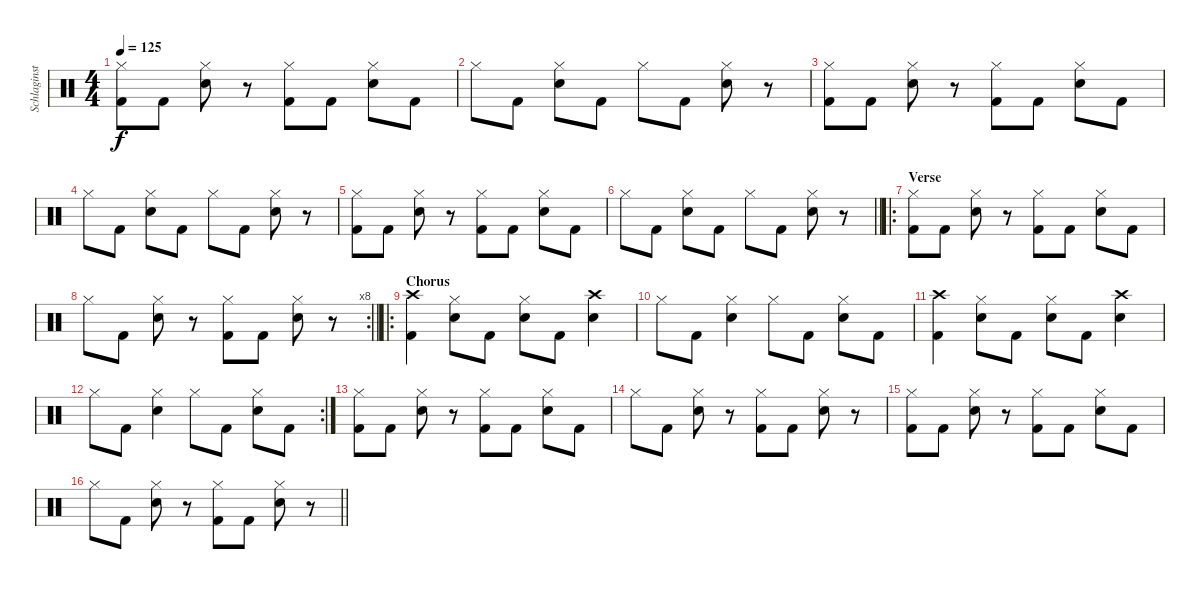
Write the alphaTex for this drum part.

\track ("Schlaginstrumente - Auswahl" "Schlaginst") {instrument percussion}
\staff {score}
\articulation defaults
\ts (4 4)
\tempo 125
\clef neutral
\ks c
("Hi-Hat (closed)" "Kick (hit) 2").8{dy f} "Kick (hit) 2".8 ("Hi-Hat (closed)" "Snare (hit) 2").8 r.8 ("Hi-Hat (closed)" "Kick (hit) 2").8 "Kick (hit) 2".8 ("Hi-Hat (closed)" "Snare (hit) 2").8 "Kick (hit) 2".8 |
"Hi-Hat (closed)".8 "Kick (hit) 2".8 ("Hi-Hat (closed)" "Snare (hit) 2").8 "Kick (hit) 2".8 "Hi-Hat (closed)".8 "Kick (hit) 2".8 ("Hi-Hat (closed)" "Snare (hit) 2").8 r.8 |
("Hi-Hat (closed)" "Kick (hit) 2").8 "Kick (hit) 2".8 ("Hi-Hat (closed)" "Snare (hit) 2").8 r.8 ("Hi-Hat (closed)" "Kick (hit) 2").8 "Kick (hit) 2".8 ("Hi-Hat (closed)" "Snare (hit) 2").8 "Kick (hit) 2".8 |
"Hi-Hat (closed)".8 "Kick (hit) 2".8 ("Hi-Hat (closed)" "Snare (hit) 2").8 "Kick (hit) 2".8 "Hi-Hat (closed)".8 "Kick (hit) 2".8 ("Hi-Hat (closed)" "Snare (hit) 2").8 r.8 |
("Hi-Hat (closed)" "Kick (hit) 2").8 "Kick (hit) 2".8 ("Hi-Hat (closed)" "Snare (hit) 2").8 r.8 ("Hi-Hat (closed)" "Kick (hit) 2").8 "Kick (hit) 2".8 ("Hi-Hat (closed)" "Snare (hit) 2").8 "Kick (hit) 2".8 |
\barLineRight lightlight "Hi-Hat (closed)".8 "Kick (hit) 2".8
("Hi-Hat (closed)" "Snare (hit) 2").8 "Kick (hit) 2".8 "Hi-Hat (closed)".8 "Kick (hit) 2".8 ("Hi-Hat (closed)" "Snare (hit) 2").8 r.8 |
\ro
\section ("" "Verse")
("Hi-Hat (closed)" "Kick (hit) 2").8 "Kick (hit) 2".8 ("Hi-Hat (closed)" "Snare (hit) 2").8 r.8 ("Hi-Hat (closed)" "Kick (hit) 2").8 "Kick (hit) 2".8 ("Hi-Hat (closed)" "Snare (hit) 2").8 "Kick (hit) 2".8 |
\rc 8
\barLineRight lightlight "Hi-Hat (closed)".8 "Kick (hit) 2".8
("Hi-Hat (closed)" "Snare (hit) 2").8 r.8 ("Hi-Hat (closed)" "Kick (hit) 2").8 "Kick (hit) 2".8 ("Hi-Hat (closed)" "Snare (hit) 2").8 r.8 |
\ro
\section ("" "Chorus")
("Crash high (hit)" "Kick (hit) 2").4 ("Hi-Hat (closed)" "Snare (hit) 2").8 "Kick (hit) 2".8 ("Hi-Hat (closed)" "Snare (hit) 2").8 "Kick (hit) 2".8 ("Crash high (hit)" "Snare (hit) 2").4 |
"Hi-Hat (closed)".8 "Kick (hit) 2".8 ("Hi-Hat (closed)" "Snare (hit) 2").4 "Hi-Hat (closed)".8 "Kick (hit) 2".8 ("Hi-Hat (closed)" "Snare (hit) 2").8 "Kick (hit) 2".8 |
("Crash high (hit)" "Kick (hit) 2").4 ("Hi-Hat (closed)" "Snare (hit) 2").8 "Kick (hit) 2".8 ("Hi-Hat (closed)" "Snare (hit) 2").8 "Kick (hit) 2".8 ("Crash high (hit)" "Snare (hit) 2").4 |
\rc 2 "Hi-Hat (closed)".8 "Kick (hit) 2".8
("Hi-Hat (closed)" "Snare (hit) 2").4 "Hi-Hat (closed)".8 "Kick (hit) 2".8 ("Hi-Hat (closed)" "Snare (hit) 2").8 "Kick (hit) 2".8 |
("Hi-Hat (closed)" "Kick (hit) 2").8 "Kick (hit) 2".8 ("Hi-Hat (closed)" "Snare (hit) 2").8 r.8 ("Hi-Hat (closed)" "Kick (hit) 2").8 "Kick (hit) 2".8 ("Hi-Hat (closed)" "Snare (hit) 2").8 "Kick (hit) 2".8 |
"Hi-Hat (closed)".8 "Kick (hit) 2".8 ("Hi-Hat (closed)" "Snare (hit) 2").8 r.8 ("Hi-Hat (closed)" "Kick (hit) 2").8 "Kick (hit) 2".8 ("Hi-Hat (closed)" "Snare (hit) 2").8 r.8 |
("Hi-Hat (closed)" "Kick (hit) 2").8 "Kick (hit) 2".8 ("Hi-Hat (closed)" "Snare (hit) 2").8 r.8 ("Hi-Hat (closed)" "Kick (hit) 2").8 "Kick (hit) 2".8 ("Hi-Hat (closed)" "Snare (hit) 2").8 "Kick (hit) 2".8 |
\barLineRight lightlight "Hi-Hat (closed)".8 "Kick (hit) 2".8
("Hi-Hat (closed)" "Snare (hit) 2").8 r.8 ("Hi-Hat (closed)" "Kick (hit) 2").8 "Kick (hit) 2".8 ("Hi-Hat (closed)" "Snare (hit) 2").8 r.8
